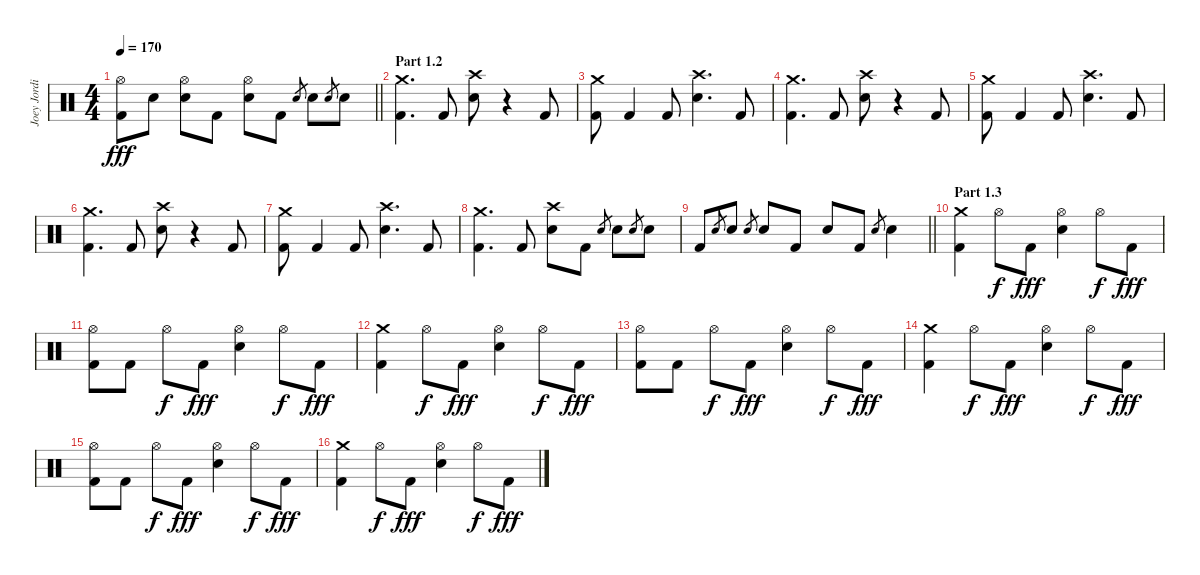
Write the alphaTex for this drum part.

\track ("Joey Jordison" "Joey Jordi") {instrument percussion}
\staff {score}
\articulation defaults
\ts (4 4)
\tempo 170
\clef neutral
\barLineRight lightlight
\ks c
("Hi-Hat (open)" "Kick (hit) 2").8{dy fff} "Electric Snare (hit)".8 ("Hi-Hat (open)" "Electric Snare (hit)").8 "Kick (hit) 2".8 ("Hi-Hat (open)" "Electric Snare (hit)").8 "Kick (hit) 2".8 "Electric Snare (hit)".8{gr} "Electric Snare (hit)".8 "Electric Snare (hit)".8{gr} "Electric Snare (hit)".8 |
\section ("" "Part 1.2")
("Crash medium (hit)" "Kick (hit) 2").4{d} "Kick (hit) 2".8 ("Crash high (hit)" "Electric Snare (hit)").8 r.4 "Kick (hit) 2".8 |
("Crash medium (hit)" "Kick (hit) 2").8 "Kick (hit) 2".4 "Kick (hit) 2".8 ("Crash high (hit)" "Electric Snare (hit)").4{d} "Kick (hit) 2".8 |
("Crash medium (hit)" "Kick (hit) 2").4{d} "Kick (hit) 2".8 ("Crash high (hit)" "Electric Snare (hit)").8 r.4 "Kick (hit) 2".8 |
("Crash medium (hit)" "Kick (hit) 2").8 "Kick (hit) 2".4 "Kick (hit) 2".8 ("Crash high (hit)" "Electric Snare (hit)").4{d} "Kick (hit) 2".8 |
("Crash medium (hit)" "Kick (hit) 2").4{d} "Kick (hit) 2".8 ("Crash high (hit)" "Electric Snare (hit)").8 r.4 "Kick (hit) 2".8 |
("Crash medium (hit)" "Kick (hit) 2").8 "Kick (hit) 2".4 "Kick (hit) 2".8 ("Crash high (hit)" "Electric Snare (hit)").4{d} "Kick (hit) 2".8 |
("Crash medium (hit)" "Kick (hit) 2").4{d} "Kick (hit) 2".8 ("Crash high (hit)" "Electric Snare (hit)").8 "Kick (hit) 2".8 "Electric Snare (hit)".8{gr} "Electric Snare (hit)".8 "Electric Snare (hit)".8{gr} "Electric Snare (hit)".8 |
\barLineRight lightlight "Kick (hit) 2".8 "Electric Snare (hit)".8{gr} "Electric Snare (hit)".8 "Electric Snare (hit)".8{gr} "Electric Snare (hit)".8 "Kick (hit) 2".8 "Electric Snare (hit)".8 "Kick (hit) 2".8 "Electric Snare (hit)".8{gr} "Electric Snare (hit)".4
|
\section ("" "Part 1.3")
("Crash medium (hit)" "Kick (hit) 2").4 "Hi-Hat (open)".8{dy f} "Kick (hit) 2".8{dy fff} ("Hi-Hat (open)" "Electric Snare (hit)").4 "Hi-Hat (open)".8{dy f} "Kick (hit) 2".8{dy fff} |
("Hi-Hat (open)" "Kick (hit) 2").8 "Kick (hit) 2".8 "Hi-Hat (open)".8{dy f} "Kick (hit) 2".8{dy fff} ("Hi-Hat (open)" "Electric Snare (hit)").4 "Hi-Hat (open)".8{dy f} "Kick (hit) 2".8{dy fff} |
("Crash medium (hit)" "Kick (hit) 2").4 "Hi-Hat (open)".8{dy f} "Kick (hit) 2".8{dy fff} ("Hi-Hat (open)" "Electric Snare (hit)").4 "Hi-Hat (open)".8{dy f} "Kick (hit) 2".8{dy fff} |
("Hi-Hat (open)" "Kick (hit) 2").8 "Kick (hit) 2".8 "Hi-Hat (open)".8{dy f} "Kick (hit) 2".8{dy fff} ("Hi-Hat (open)" "Electric Snare (hit)").4 "Hi-Hat (open)".8{dy f} "Kick (hit) 2".8{dy fff} |
("Crash medium (hit)" "Kick (hit) 2").4 "Hi-Hat (open)".8{dy f} "Kick (hit) 2".8{dy fff} ("Hi-Hat (open)" "Electric Snare (hit)").4 "Hi-Hat (open)".8{dy f} "Kick (hit) 2".8{dy fff} |
("Hi-Hat (open)" "Kick (hit) 2").8 "Kick (hit) 2".8 "Hi-Hat (open)".8{dy f} "Kick (hit) 2".8{dy fff} ("Hi-Hat (open)" "Electric Snare (hit)").4 "Hi-Hat (open)".8{dy f} "Kick (hit) 2".8{dy fff} |
("Crash medium (hit)" "Kick (hit) 2").4 "Hi-Hat (open)".8{dy f} "Kick (hit) 2".8{dy fff} ("Hi-Hat (open)" "Electric Snare (hit)").4 "Hi-Hat (open)".8{dy f} "Kick (hit) 2".8{dy fff}
